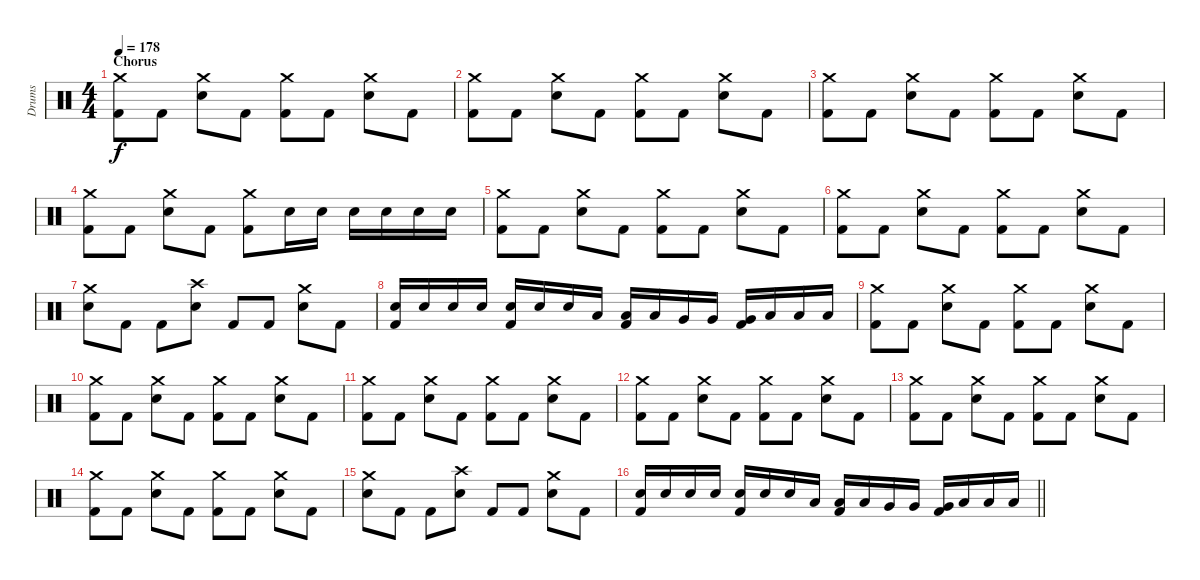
\track ("Drums" "Drums") {instrument percussion}
\staff {score}
\articulation defaults
\ts (4 4)
\section ("" "Chorus")
\tempo 178
\clef neutral
\ks c
("Crash medium (hit)" "Kick (hit) 2").8{dy f} "Kick (hit) 2".8 ("Crash medium (hit)" "Electric Snare (hit)").8 "Kick (hit) 2".8 ("Crash medium (hit)" "Kick (hit) 2").8 "Kick (hit) 2".8 ("Crash medium (hit)" "Electric Snare (hit)").8 "Kick (hit) 2".8 |
("Crash medium (hit)" "Kick (hit) 2").8 "Kick (hit) 2".8 ("Crash medium (hit)" "Electric Snare (hit)").8 "Kick (hit) 2".8 ("Crash medium (hit)" "Kick (hit) 2").8 "Kick (hit) 2".8 ("Crash medium (hit)" "Electric Snare (hit)").8 "Kick (hit) 2".8 |
("Crash medium (hit)" "Kick (hit) 2").8 "Kick (hit) 2".8 ("Crash medium (hit)" "Electric Snare (hit)").8 "Kick (hit) 2".8 ("Crash medium (hit)" "Kick (hit) 2").8 "Kick (hit) 2".8 ("Crash medium (hit)" "Electric Snare (hit)").8 "Kick (hit) 2".8 |
("Crash medium (hit)" "Kick (hit) 2").8 "Kick (hit) 2".8 ("Crash medium (hit)" "Electric Snare (hit)").8 "Kick (hit) 2".8 ("Crash medium (hit)" "Kick (hit) 2").8 "Electric Snare (hit)".16 "Electric Snare (hit)".16 "Electric Snare (hit)".16 "Electric Snare (hit)".16 "Electric Snare (hit)".16 "Electric Snare (hit)".16 |
("Crash medium (hit)" "Kick (hit) 2").8 "Kick (hit) 2".8 ("Crash medium (hit)" "Electric Snare (hit)").8 "Kick (hit) 2".8 ("Crash medium (hit)" "Kick (hit) 2").8 "Kick (hit) 2".8 ("Crash medium (hit)" "Electric Snare (hit)").8 "Kick (hit) 2".8 |
("Crash medium (hit)" "Kick (hit) 2").8 "Kick (hit) 2".8 ("Crash medium (hit)" "Electric Snare (hit)").8 "Kick (hit) 2".8 ("Crash medium (hit)" "Kick (hit) 2").8 "Kick (hit) 2".8 ("Crash medium (hit)" "Electric Snare (hit)").8 "Kick (hit) 2".8 |
("Crash medium (hit)" "Electric Snare (hit)").8 "Kick (hit) 2".8 "Kick (hit) 2".8 ("Crash high (hit)" "Electric Snare (hit)").8 "Kick (hit) 2".8 "Kick (hit) 2".8 ("Crash medium (hit)" "Electric Snare (hit)").8 "Kick (hit) 2".8 |
("Electric Snare (hit)" "Kick (hit) 2").16 "Electric Snare (hit)".16 "Electric Snare (hit)".16 "Electric Snare (hit)".16 ("Electric Snare (hit)" "Kick (hit) 2").16 "Electric Snare (hit)".16 "Electric Snare (hit)".16 "Low Tom (hit)".16 ("Low Tom (hit)" "Kick (hit) 2").16 "Low Tom (hit)".16 "Very Low Tom (hit)".16 "Very Low Tom (hit)".16 ("Very Low Tom (hit)" "Kick (hit) 2").16 "Low Floor Tom (hit)".16 "Low Floor Tom (hit)".16 "Low Floor Tom (hit)".16 |
("Crash medium (hit)" "Kick (hit) 2").8 "Kick (hit) 2".8 ("Crash medium (hit)" "Electric Snare (hit)").8 "Kick (hit) 2".8 ("Crash medium (hit)" "Kick (hit) 2").8 "Kick (hit) 2".8 ("Crash medium (hit)" "Electric Snare (hit)").8 "Kick (hit) 2".8 |
("Crash medium (hit)" "Kick (hit) 2").8 "Kick (hit) 2".8 ("Crash medium (hit)" "Electric Snare (hit)").8 "Kick (hit) 2".8 ("Crash medium (hit)" "Kick (hit) 2").8 "Kick (hit) 2".8 ("Crash medium (hit)" "Electric Snare (hit)").8 "Kick (hit) 2".8 |
("Crash medium (hit)" "Kick (hit) 2").8 "Kick (hit) 2".8 ("Crash medium (hit)" "Electric Snare (hit)").8 "Kick (hit) 2".8 ("Crash medium (hit)" "Kick (hit) 2").8 "Kick (hit) 2".8 ("Crash medium (hit)" "Electric Snare (hit)").8 "Kick (hit) 2".8 |
("Crash medium (hit)" "Kick (hit) 2").8 "Kick (hit) 2".8 ("Crash medium (hit)" "Electric Snare (hit)").8 "Kick (hit) 2".8 ("Crash medium (hit)" "Kick (hit) 2").8 "Kick (hit) 2".8 ("Crash medium (hit)" "Electric Snare (hit)").8 "Kick (hit) 2".8 |
("Crash medium (hit)" "Kick (hit) 2").8 "Kick (hit) 2".8 ("Crash medium (hit)" "Electric Snare (hit)").8 "Kick (hit) 2".8 ("Crash medium (hit)" "Kick (hit) 2").8 "Kick (hit) 2".8 ("Crash medium (hit)" "Electric Snare (hit)").8 "Kick (hit) 2".8 |
("Crash medium (hit)" "Kick (hit) 2").8 "Kick (hit) 2".8 ("Crash medium (hit)" "Electric Snare (hit)").8 "Kick (hit) 2".8 ("Crash medium (hit)" "Kick (hit) 2").8 "Kick (hit) 2".8 ("Crash medium (hit)" "Electric Snare (hit)").8 "Kick (hit) 2".8 |
("Crash medium (hit)" "Electric Snare (hit)").8 "Kick (hit) 2".8 "Kick (hit) 2".8 ("Crash high (hit)" "Electric Snare (hit)").8 "Kick (hit) 2".8 "Kick (hit) 2".8 ("Crash medium (hit)" "Electric Snare (hit)").8 "Kick (hit) 2".8 |
\barLineRight lightlight
("Electric Snare (hit)" "Kick (hit) 2").16 "Electric Snare (hit)".16 "Electric Snare (hit)".16 "Electric Snare (hit)".16 ("Electric Snare (hit)" "Kick (hit) 2").16 "Electric Snare (hit)".16 "Electric Snare (hit)".16 "Low Tom (hit)".16 ("Low Tom (hit)" "Kick (hit) 2").16 "Low Tom (hit)".16 "Very Low Tom (hit)".16 "Very Low Tom (hit)".16 ("Very Low Tom (hit)" "Kick (hit) 2").16 "Low Floor Tom (hit)".16 "Low Floor Tom (hit)".16 "Low Floor Tom (hit)".16
